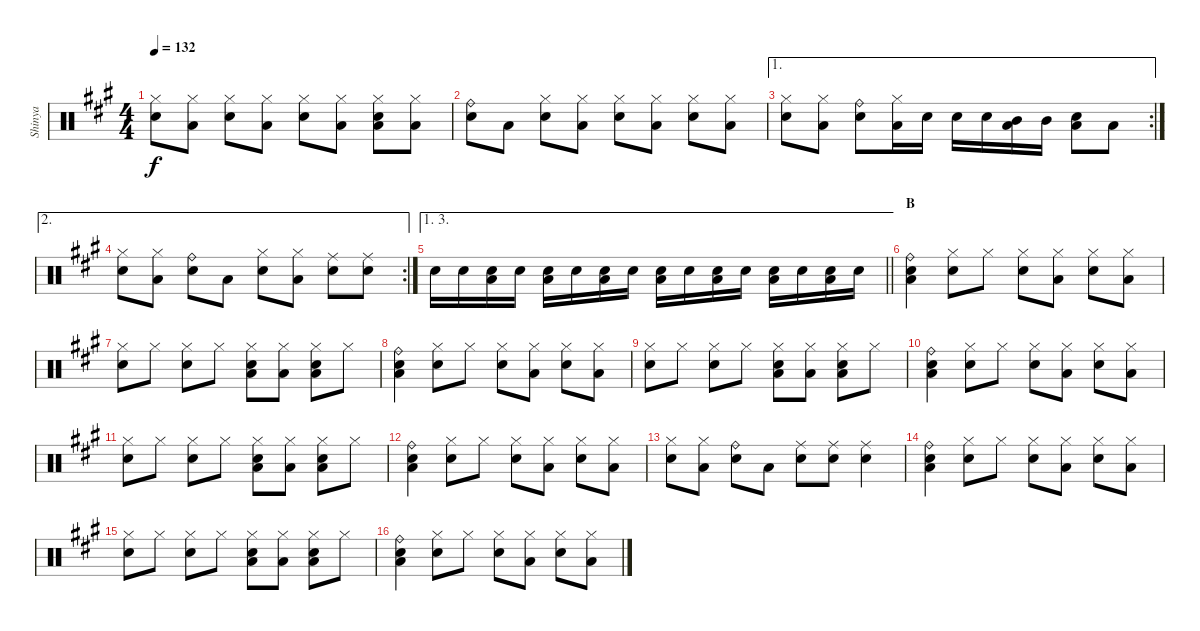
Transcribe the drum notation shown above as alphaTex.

\track ("Shinya" "Shinya") {instrument percussion}
\staff {score}
\articulation defaults
\ts (4 4)
\tempo 132
\clef neutral
\ks a
("Hi-Hat (closed)" "Snare (hit) 2").8{dy f} ("Low Floor Tom (hit)" "Hi-Hat (closed)").8 ("Hi-Hat (closed)" "Snare (hit) 2").8 ("Low Floor Tom (hit)" "Hi-Hat (closed)").8 ("Hi-Hat (closed)" "Snare (hit) 2").8 ("Low Floor Tom (hit)" "Hi-Hat (closed)").8 ("Low Floor Tom (hit)" "Hi-Hat (closed)" "Snare (hit) 2").8 ("Low Floor Tom (hit)" "Hi-Hat (closed)").8 |
("Ride (bell)" "Snare (hit) 2").8 "Low Floor Tom (hit)".8 ("Hi-Hat (closed)" "Snare (hit) 2").8 ("Low Floor Tom (hit)" "Hi-Hat (closed)").8 ("Hi-Hat (closed)" "Snare (hit) 2").8 ("Low Floor Tom (hit)" "Hi-Hat (closed)").8 ("Hi-Hat (closed)" "Snare (hit) 2").8 ("Low Floor Tom (hit)" "Hi-Hat (closed)").8 |
\ae 1
\rc 2
("Hi-Hat (closed)" "Snare (hit) 2").8 ("Low Floor Tom (hit)" "Hi-Hat (closed)").8 ("Ride (bell)" "Snare (hit) 2").8 ("Low Floor Tom (hit)" "Hi-Hat (closed)").16 "Snare (hit) 2".16 "Snare (hit) 2".16 "Snare (hit) 2".16 ("Low Floor Tom (hit)" "Mid Tom (hit)").16 "Mid Tom (hit)".16 ("Low Floor Tom (hit)" "Snare (hit) 2").8 "Low Floor Tom (hit)".8 |
\ae 2
\rc 2
("Hi-Hat (closed)" "Snare (hit) 2").8 ("Low Floor Tom (hit)" "Hi-Hat (closed)").8 ("Ride (bell)" "Snare (hit) 2").8 "Low Floor Tom (hit)".8 ("Hi-Hat (closed)" "Snare (hit) 2").8 ("Low Tom (hit)" "Hi-Hat (closed)").8 ("Ride (middle)" "Snare (hit) 2").8 ("Ride (middle)" "Snare (hit) 2").8 |
\ae (1 3)
\barLineRight lightlight "Snare (hit) 2".16 "Snare (hit) 2".16
("Low Floor Tom (hit)" "Snare (hit) 2").16 "Snare (hit) 2".16 ("Low Floor Tom (hit)" "Snare (hit) 2").16 "Snare (hit) 2".16 ("Low Floor Tom (hit)" "Snare (hit) 2").16 "Snare (hit) 2".16 ("Low Floor Tom (hit)" "Snare (hit) 2").16 "Snare (hit) 2".16 ("Low Floor Tom (hit)" "Snare (hit) 2").16 "Snare (hit) 2".16 ("Low Floor Tom (hit)" "Snare (hit) 2").16 "Snare (hit) 2".16 ("Low Floor Tom (hit)" "Snare (hit) 2").16 "Snare (hit) 2".16 |
\section ("" "B")
("Low Floor Tom (hit)" "Ride (bell)" "Snare (hit) 2").4 ("Hi-Hat (closed)" "Snare (hit) 2").8 "Hi-Hat (closed)".8 ("Hi-Hat (closed)" "Snare (hit) 2").8 ("Low Floor Tom (hit)" "Hi-Hat (closed)").8 ("Hi-Hat (closed)" "Snare (hit) 2").8 ("Low Floor Tom (hit)" "Hi-Hat (closed)").8 |
("Hi-Hat (closed)" "Snare (hit) 2").8 "Hi-Hat (closed)".8 ("Hi-Hat (closed)" "Snare (hit) 2").8 "Hi-Hat (closed)".8 ("Low Floor Tom (hit)" "Hi-Hat (closed)" "Snare (hit) 2").8 ("Low Floor Tom (hit)" "Hi-Hat (closed)").8 ("Low Floor Tom (hit)" "Hi-Hat (closed)" "Snare (hit) 2").8 "Hi-Hat (closed)".8 |
("Low Floor Tom (hit)" "Ride (bell)" "Snare (hit) 2").4 ("Hi-Hat (closed)" "Snare (hit) 2").8 "Hi-Hat (closed)".8 ("Hi-Hat (closed)" "Snare (hit) 2").8 ("Low Floor Tom (hit)" "Hi-Hat (closed)").8 ("Hi-Hat (closed)" "Snare (hit) 2").8 ("Low Floor Tom (hit)" "Hi-Hat (closed)").8 |
("Hi-Hat (closed)" "Snare (hit) 2").8 "Hi-Hat (closed)".8 ("Hi-Hat (closed)" "Snare (hit) 2").8 "Hi-Hat (closed)".8 ("Low Floor Tom (hit)" "Hi-Hat (closed)" "Snare (hit) 2").8 ("Low Floor Tom (hit)" "Hi-Hat (closed)").8 ("Low Floor Tom (hit)" "Hi-Hat (closed)" "Snare (hit) 2").8 "Hi-Hat (closed)".8 |
("Low Floor Tom (hit)" "Ride (bell)" "Snare (hit) 2").4 ("Hi-Hat (closed)" "Snare (hit) 2").8 "Hi-Hat (closed)".8 ("Hi-Hat (closed)" "Snare (hit) 2").8 ("Low Floor Tom (hit)" "Hi-Hat (closed)").8 ("Hi-Hat (closed)" "Snare (hit) 2").8 ("Low Floor Tom (hit)" "Hi-Hat (closed)").8 |
("Hi-Hat (closed)" "Snare (hit) 2").8 "Hi-Hat (closed)".8 ("Hi-Hat (closed)" "Snare (hit) 2").8 "Hi-Hat (closed)".8 ("Low Floor Tom (hit)" "Hi-Hat (closed)" "Snare (hit) 2").8 ("Low Floor Tom (hit)" "Hi-Hat (closed)").8 ("Low Floor Tom (hit)" "Hi-Hat (closed)" "Snare (hit) 2").8 "Hi-Hat (closed)".8 |
("Low Floor Tom (hit)" "Ride (bell)" "Snare (hit) 2").4 ("Hi-Hat (closed)" "Snare (hit) 2").8 "Hi-Hat (closed)".8 ("Hi-Hat (closed)" "Snare (hit) 2").8 ("Low Floor Tom (hit)" "Hi-Hat (closed)").8 ("Hi-Hat (closed)" "Snare (hit) 2").8 ("Low Floor Tom (hit)" "Hi-Hat (closed)").8 |
("Hi-Hat (closed)" "Snare (hit) 2").8 ("Low Floor Tom (hit)" "Hi-Hat (closed)").8 ("Ride (bell)" "Snare (hit) 2").8 "Low Floor Tom (hit)".8 ("Ride (middle)" "Snare (hit) 2").8 ("Ride (middle)" "Snare (hit) 2").8 ("Ride (middle)" "Snare (hit) 2").4 |
("Low Floor Tom (hit)" "Ride (bell)" "Snare (hit) 2").4 ("Hi-Hat (closed)" "Snare (hit) 2").8 "Hi-Hat (closed)".8 ("Hi-Hat (closed)" "Snare (hit) 2").8 ("Low Floor Tom (hit)" "Hi-Hat (closed)").8 ("Hi-Hat (closed)" "Snare (hit) 2").8 ("Low Floor Tom (hit)" "Hi-Hat (closed)").8 |
("Hi-Hat (closed)" "Snare (hit) 2").8 "Hi-Hat (closed)".8 ("Hi-Hat (closed)" "Snare (hit) 2").8 "Hi-Hat (closed)".8 ("Low Floor Tom (hit)" "Hi-Hat (closed)" "Snare (hit) 2").8 ("Low Floor Tom (hit)" "Hi-Hat (closed)").8 ("Low Floor Tom (hit)" "Hi-Hat (closed)" "Snare (hit) 2").8 "Hi-Hat (closed)".8 |
("Low Floor Tom (hit)" "Ride (bell)" "Snare (hit) 2").4 ("Hi-Hat (closed)" "Snare (hit) 2").8 "Hi-Hat (closed)".8 ("Hi-Hat (closed)" "Snare (hit) 2").8 ("Low Floor Tom (hit)" "Hi-Hat (closed)").8 ("Hi-Hat (closed)" "Snare (hit) 2").8 ("Low Floor Tom (hit)" "Hi-Hat (closed)").8
